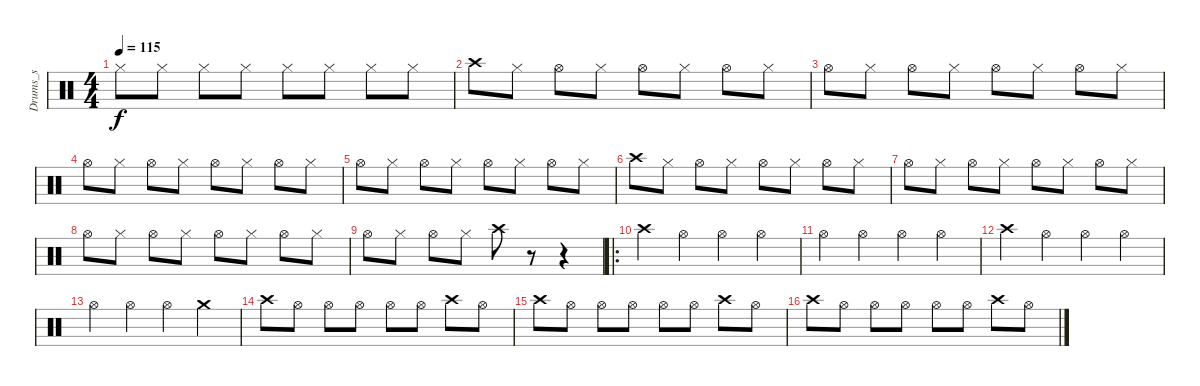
\track ("Drums_s" "Drums_s") {instrument percussion}
\staff {score}
\articulation defaults
\ts (4 4)
\tempo 115
\clef neutral
\ks c "Hi-Hat (closed)".8{dy f} "Hi-Hat (closed)".8 "Hi-Hat (closed)".8 "Hi-Hat (closed)".8 "Hi-Hat (closed)".8 "Hi-Hat (closed)".8 "Hi-Hat (closed)".8 "Hi-Hat (closed)".8
|
"Crash high (hit)".8 "Hi-Hat (closed)".8 "Hi-Hat (open)".8 "Hi-Hat (closed)".8 "Hi-Hat (open)".8 "Hi-Hat (closed)".8 "Hi-Hat (open)".8 "Hi-Hat (closed)".8 |
"Hi-Hat (open)".8 "Hi-Hat (closed)".8 "Hi-Hat (open)".8 "Hi-Hat (closed)".8 "Hi-Hat (open)".8 "Hi-Hat (closed)".8 "Hi-Hat (open)".8 "Hi-Hat (closed)".8 |
"Hi-Hat (open)".8 "Hi-Hat (closed)".8 "Hi-Hat (open)".8 "Hi-Hat (closed)".8 "Hi-Hat (open)".8 "Hi-Hat (closed)".8 "Hi-Hat (open)".8 "Hi-Hat (closed)".8 |
"Hi-Hat (open)".8 "Hi-Hat (closed)".8 "Hi-Hat (open)".8 "Hi-Hat (closed)".8 "Hi-Hat (open)".8 "Hi-Hat (closed)".8 "Hi-Hat (open)".8 "Hi-Hat (closed)".8 |
"Crash high (hit)".8 "Hi-Hat (closed)".8 "Hi-Hat (open)".8 "Hi-Hat (closed)".8 "Hi-Hat (open)".8 "Hi-Hat (closed)".8 "Hi-Hat (open)".8 "Hi-Hat (closed)".8 |
"Hi-Hat (open)".8 "Hi-Hat (closed)".8 "Hi-Hat (open)".8 "Hi-Hat (closed)".8 "Hi-Hat (open)".8 "Hi-Hat (closed)".8 "Hi-Hat (open)".8 "Hi-Hat (closed)".8 |
"Hi-Hat (open)".8 "Hi-Hat (closed)".8 "Hi-Hat (open)".8 "Hi-Hat (closed)".8 "Hi-Hat (open)".8 "Hi-Hat (closed)".8 "Hi-Hat (open)".8 "Hi-Hat (closed)".8 |
"Hi-Hat (open)".8 "Hi-Hat (closed)".8 "Hi-Hat (open)".8 "Hi-Hat (closed)".8 "Crash high (hit)".8 r.8 r.4 |
\ro "Crash high (hit)".4 "Hi-Hat (open)".4 "Hi-Hat (open)".4 "Hi-Hat (open)".4
|
"Hi-Hat (open)".4 "Hi-Hat (open)".4 "Hi-Hat (open)".4 "Hi-Hat (open)".4 |
"Crash high (hit)".4 "Hi-Hat (open)".4 "Hi-Hat (open)".4 "Hi-Hat (open)".4 |
"Hi-Hat (open)".4 "Hi-Hat (open)".4 "Hi-Hat (open)".4 "Crash medium (hit)".4 |
"Crash high (hit)".8 "Hi-Hat (open)".8 "Hi-Hat (open)".8 "Hi-Hat (open)".8 "Hi-Hat (open)".8 "Hi-Hat (open)".8 "Crash high (hit)".8 "Hi-Hat (open)".8 |
"Crash high (hit)".8 "Hi-Hat (open)".8 "Hi-Hat (open)".8 "Hi-Hat (open)".8 "Hi-Hat (open)".8 "Hi-Hat (open)".8 "Crash high (hit)".8 "Hi-Hat (open)".8 |
"Crash high (hit)".8 "Hi-Hat (open)".8 "Hi-Hat (open)".8 "Hi-Hat (open)".8 "Hi-Hat (open)".8 "Hi-Hat (open)".8 "Crash high (hit)".8 "Hi-Hat (open)".8
